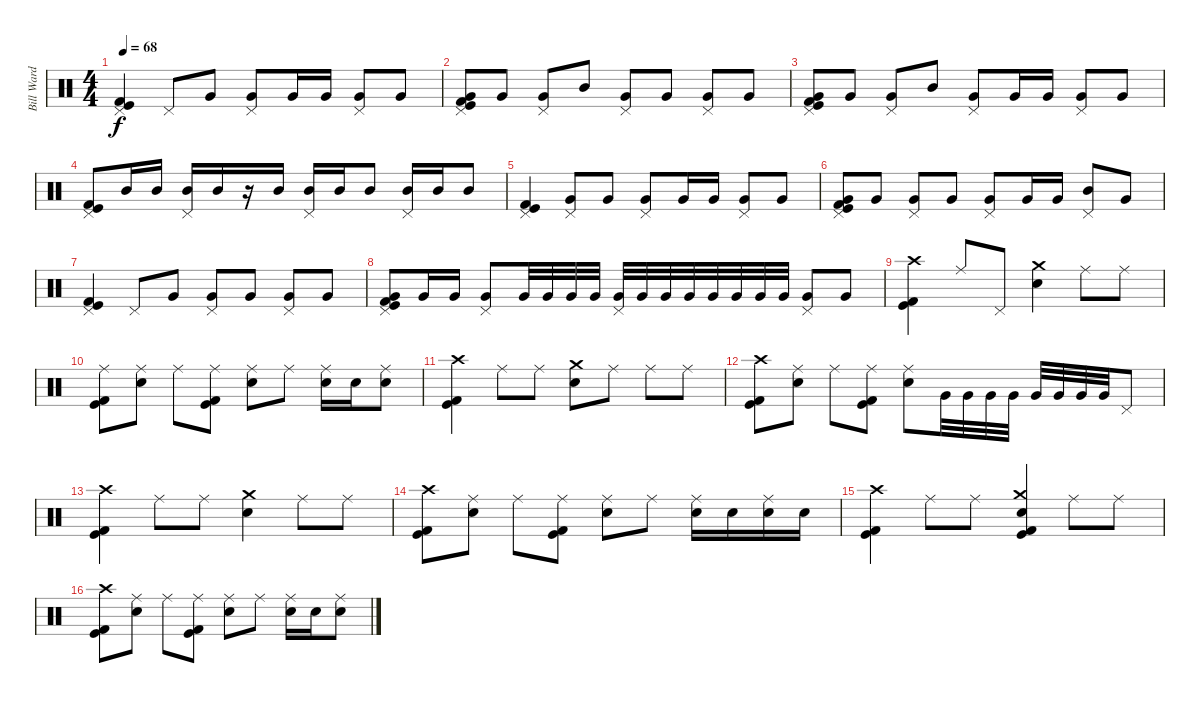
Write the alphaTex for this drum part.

\track ("Bill Ward" "Bill Ward") {instrument percussion}
\staff {score}
\articulation defaults
\ts (4 4)
\tempo 68
\clef neutral
\ks c
("Pedal Hi-Hat (hit)" "Kick (hit) 2" "Kick (hit)").4{dy f} "Pedal Hi-Hat (hit)".8 "Very Low Tom (hit)".8 ("Pedal Hi-Hat (hit)" "Very Low Tom (hit)").8 "Very Low Tom (hit)".16 "Very Low Tom (hit)".16 ("Pedal Hi-Hat (hit)" "Very Low Tom (hit)").8 "Very Low Tom (hit)".8 |
("Pedal Hi-Hat (hit)" "Kick (hit) 2" "Kick (hit)" "Very Low Tom (hit)").8 "Very Low Tom (hit)".8 ("Pedal Hi-Hat (hit)" "Very Low Tom (hit)").8 "Mid Tom (hit)".8 ("Pedal Hi-Hat (hit)" "Very Low Tom (hit)").8 "Very Low Tom (hit)".8 ("Pedal Hi-Hat (hit)" "Very Low Tom (hit)").8 "Very Low Tom (hit)".8 |
("Pedal Hi-Hat (hit)" "Kick (hit) 2" "Kick (hit)" "Very Low Tom (hit)").8 "Very Low Tom (hit)".8 ("Pedal Hi-Hat (hit)" "Very Low Tom (hit)").8 "Mid Tom (hit)".8 ("Pedal Hi-Hat (hit)" "Very Low Tom (hit)").8 "Very Low Tom (hit)".16 "Very Low Tom (hit)".16 ("Pedal Hi-Hat (hit)" "Very Low Tom (hit)").8 "Very Low Tom (hit)".8 |
("Pedal Hi-Hat (hit)" "Kick (hit) 2" "Kick (hit)").8 "Mid Tom (hit)".16 "Mid Tom (hit)".16 ("Pedal Hi-Hat (hit)" "Mid Tom (hit)").16 "Mid Tom (hit)".16 r.16 "Mid Tom (hit)".16 ("Pedal Hi-Hat (hit)" "Mid Tom (hit)").16 "Mid Tom (hit)".16 "Mid Tom (hit)".8 ("Pedal Hi-Hat (hit)" "Mid Tom (hit)").16 "Mid Tom (hit)".16 "Mid Tom (hit)".8 |
("Pedal Hi-Hat (hit)" "Kick (hit) 2" "Kick (hit)").4 ("Pedal Hi-Hat (hit)" "Very Low Tom (hit)").8 "Very Low Tom (hit)".8 ("Pedal Hi-Hat (hit)" "Very Low Tom (hit)").8 "Very Low Tom (hit)".16 "Very Low Tom (hit)".16 ("Pedal Hi-Hat (hit)" "Very Low Tom (hit)").8 "Very Low Tom (hit)".8 |
("Pedal Hi-Hat (hit)" "Very Low Tom (hit)" "Kick (hit) 2" "Kick (hit)").8 "Very Low Tom (hit)".8 ("Pedal Hi-Hat (hit)" "Very Low Tom (hit)").8 "Very Low Tom (hit)".8 ("Pedal Hi-Hat (hit)" "Very Low Tom (hit)").8 "Very Low Tom (hit)".16 "Very Low Tom (hit)".16 ("Pedal Hi-Hat (hit)" "Mid Tom (hit)").8 "Very Low Tom (hit)".8 |
("Pedal Hi-Hat (hit)" "Kick (hit) 2" "Kick (hit)").4 "Pedal Hi-Hat (hit)".8 "Very Low Tom (hit)".8 ("Pedal Hi-Hat (hit)" "Very Low Tom (hit)").8 "Very Low Tom (hit)".8 ("Pedal Hi-Hat (hit)" "Very Low Tom (hit)").8 "Very Low Tom (hit)".8 |
("Pedal Hi-Hat (hit)" "Kick (hit) 2" "Kick (hit)" "Very Low Tom (hit)").8 "Very Low Tom (hit)".16 "Very Low Tom (hit)".16 ("Pedal Hi-Hat (hit)" "Very Low Tom (hit)").8 "Very Low Tom (hit)".32 "Very Low Tom (hit)".32 "Very Low Tom (hit)".32 "Very Low Tom (hit)".32 ("Pedal Hi-Hat (hit)" "Very Low Tom (hit)").32 "Very Low Tom (hit)".32 "Very Low Tom (hit)".32 "Very Low Tom (hit)".32 "Very Low Tom (hit)".32 "Very Low Tom (hit)".32 "Very Low Tom (hit)".32 "Very Low Tom (hit)".32 ("Pedal Hi-Hat (hit)" "Very Low Tom (hit)").8 "Very Low Tom (hit)".8 |
("Crash high (hit)" "Kick (hit) 2" "Kick (hit)").4 "Ride (middle)".8 "Pedal Hi-Hat (hit)".8 ("Crash medium (hit)" "Snare (hit) 2").4 "Ride (middle)".8 "Ride (middle)".8 |
("Ride (middle)" "Kick (hit) 2" "Kick (hit)").8 ("Ride (middle)" "Snare (hit) 2").8 "Ride (middle)".8 ("Ride (middle)" "Kick (hit) 2" "Kick (hit)").8 ("Ride (middle)" "Snare (hit) 2").8 "Ride (middle)".8 ("Ride (middle)" "Snare (hit) 2").16 "Snare (hit) 2".16 ("Ride (middle)" "Snare (hit) 2").8 |
("Crash high (hit)" "Kick (hit) 2" "Kick (hit)").4 "Ride (middle)".8 "Ride (middle)".8 ("Crash medium (hit)" "Snare (hit) 2").8 "Ride (middle)".8 "Ride (middle)".8 "Ride (middle)".8 |
("Crash high (hit)" "Kick (hit) 2" "Kick (hit)").8 ("Ride (middle)" "Snare (hit) 2").8 "Ride (middle)".8 ("Ride (middle)" "Kick (hit) 2" "Kick (hit)").8 ("Ride (middle)" "Snare (hit) 2").8 "Very Low Tom (hit)".32 "Very Low Tom (hit)".32 "Very Low Tom (hit)".32 "Very Low Tom (hit)".32 "Very Low Tom (hit)".32 "Very Low Tom (hit)".32 "Very Low Tom (hit)".32 "Very Low Tom (hit)".32 "Pedal Hi-Hat (hit)".8 |
("Crash high (hit)" "Kick (hit) 2" "Kick (hit)").4 "Ride (middle)".8 "Ride (middle)".8 ("Crash medium (hit)" "Snare (hit) 2").4 "Ride (middle)".8 "Ride (middle)".8 |
("Crash high (hit)" "Kick (hit) 2" "Kick (hit)").8 ("Ride (middle)" "Snare (hit) 2").8 "Ride (middle)".8 ("Ride (middle)" "Kick (hit) 2" "Kick (hit)").8 ("Ride (middle)" "Snare (hit) 2").8 "Ride (middle)".8 ("Ride (middle)" "Snare (hit) 2").16 "Snare (hit) 2".16 ("Ride (middle)" "Snare (hit) 2").16 "Snare (hit) 2".16 |
("Crash high (hit)" "Kick (hit) 2" "Kick (hit)").4 "Ride (middle)".8 "Ride (middle)".8 ("Crash medium (hit)" "Snare (hit) 2" "Kick (hit) 2" "Kick (hit)").4 "Ride (middle)".8 "Ride (middle)".8 |
("Crash high (hit)" "Kick (hit) 2" "Kick (hit)").8 ("Ride (middle)" "Snare (hit) 2").8 "Ride (middle)".8 ("Ride (middle)" "Kick (hit) 2" "Kick (hit)").8 ("Ride (middle)" "Snare (hit) 2").8 "Ride (middle)".8 ("Ride (middle)" "Snare (hit) 2").16 "Snare (hit) 2".16 ("Ride (middle)" "Snare (hit) 2").8
